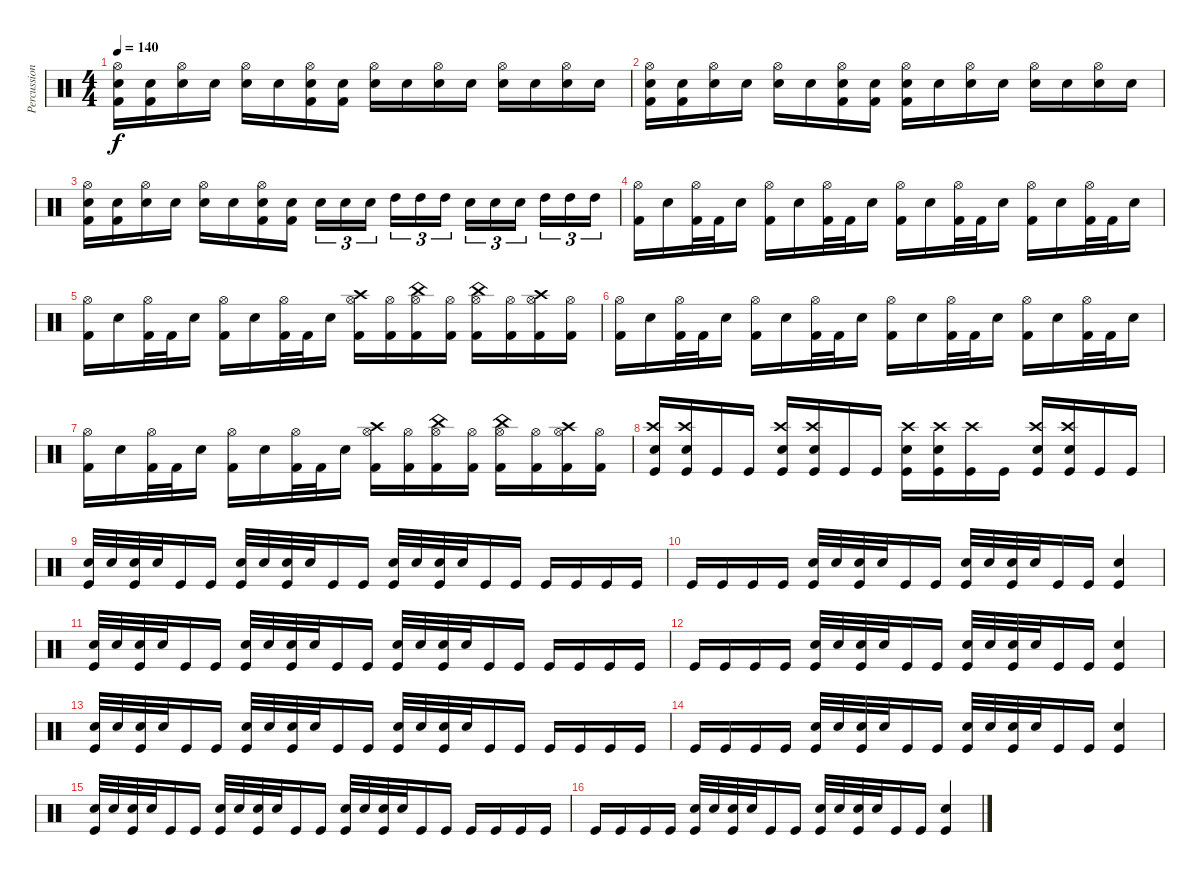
\track ("Percussion" "Percussion") {instrument percussion}
\staff {score}
\articulation defaults
\ts (4 4)
\tempo 140
\clef neutral
\ks c
("Hi-Hat (open)" "Snare (hit) 2" "Kick (hit) 2").16{dy f} ("Snare (hit) 2" "Kick (hit) 2").16 ("Hi-Hat (open)" "Snare (hit) 2").16 "Snare (hit) 2".16 ("Hi-Hat (open)" "Snare (hit) 2").16 "Snare (hit) 2".16 ("Hi-Hat (open)" "Snare (hit) 2" "Kick (hit) 2").16 ("Snare (hit) 2" "Kick (hit) 2").16 ("Hi-Hat (open)" "Snare (hit) 2").16 "Snare (hit) 2".16 ("Hi-Hat (open)" "Snare (hit) 2").16 "Snare (hit) 2".16 ("Hi-Hat (open)" "Snare (hit) 2").16 "Snare (hit) 2".16 ("Hi-Hat (open)" "Snare (hit) 2").16 "Snare (hit) 2".16 |
("Hi-Hat (open)" "Snare (hit) 2" "Kick (hit) 2").16 ("Snare (hit) 2" "Kick (hit) 2").16 ("Hi-Hat (open)" "Snare (hit) 2").16 "Snare (hit) 2".16 ("Hi-Hat (open)" "Snare (hit) 2").16 "Snare (hit) 2".16 ("Hi-Hat (open)" "Snare (hit) 2" "Kick (hit) 2").16 ("Snare (hit) 2" "Kick (hit) 2").16 ("Hi-Hat (open)" "Snare (hit) 2" "Kick (hit) 2").16 "Snare (hit) 2".16 ("Hi-Hat (open)" "Snare (hit) 2").16 "Snare (hit) 2".16 ("Hi-Hat (open)" "Snare (hit) 2").16 "Snare (hit) 2".16 ("Hi-Hat (open)" "Snare (hit) 2").16 "Snare (hit) 2".16 |
("Hi-Hat (open)" "Snare (hit) 2" "Kick (hit) 2").16 ("Snare (hit) 2" "Kick (hit) 2").16 ("Hi-Hat (open)" "Snare (hit) 2").16 "Snare (hit) 2".16 ("Hi-Hat (open)" "Snare (hit) 2").16 "Snare (hit) 2".16 ("Hi-Hat (open)" "Snare (hit) 2" "Kick (hit) 2").16 ("Snare (hit) 2" "Kick (hit) 2").16 "Snare (hit) 2".16{tu (3 2)} "Snare (hit) 2".16{tu (3 2)} "Snare (hit) 2".16{tu (3 2) beam splitsecondary} "High Tom (hit)".16{tu (3 2)} "High Tom (hit)".16{tu (3 2)} "High Tom (hit)".16{tu (3 2)} "Snare (hit) 2".16{tu (3 2)} "Snare (hit) 2".16{tu (3 2)} "Snare (hit) 2".16{tu (3 2) beam splitsecondary} "High Tom (hit)".16{tu (3 2)} "High Tom (hit)".16{tu (3 2)} "High Tom (hit)".16{tu (3 2)} |
("Kick (hit) 2" "Hi-Hat (open)").16 "Snare (hit) 2".16 ("Kick (hit) 2" "Hi-Hat (open)").32 "Kick (hit) 2".32 "Snare (hit) 2".16 ("Kick (hit) 2" "Hi-Hat (open)").16 "Snare (hit) 2".16 ("Kick (hit) 2" "Hi-Hat (open)").32 "Kick (hit) 2".32 "Snare (hit) 2".16 ("Kick (hit) 2" "Hi-Hat (open)").16 "Snare (hit) 2".16 ("Kick (hit) 2" "Hi-Hat (open)").32 "Kick (hit) 2".32 "Snare (hit) 2".16 ("Kick (hit) 2" "Hi-Hat (open)").16 "Snare (hit) 2".16 ("Kick (hit) 2" "Hi-Hat (open)").32 "Kick (hit) 2".32 "Snare (hit) 2".16 |
("Kick (hit) 2" "Hi-Hat (open)").16 "Snare (hit) 2".16 ("Kick (hit) 2" "Hi-Hat (open)").32 "Kick (hit) 2".32 "Snare (hit) 2".16 ("Kick (hit) 2" "Hi-Hat (open)").16 "Snare (hit) 2".16 ("Kick (hit) 2" "Hi-Hat (open)").32 "Kick (hit) 2".32 "Snare (hit) 2".16 ("Kick (hit) 2" "Hi-Hat (open)" "Crash high (hit)").16 ("Kick (hit) 2" "Hi-Hat (open)").16 ("Kick (hit) 2" "Hi-Hat (open)" "China (hit)").16 ("Kick (hit) 2" "Hi-Hat (open)").16 ("Kick (hit) 2" "Hi-Hat (open)" "China (hit)").16 ("Kick (hit) 2" "Hi-Hat (open)").16 ("Kick (hit) 2" "Hi-Hat (open)" "Crash high (hit)").16 ("Kick (hit) 2" "Hi-Hat (open)").16 |
("Kick (hit) 2" "Hi-Hat (open)").16 "Snare (hit) 2".16 ("Kick (hit) 2" "Hi-Hat (open)").32 "Kick (hit) 2".32 "Snare (hit) 2".16 ("Kick (hit) 2" "Hi-Hat (open)").16 "Snare (hit) 2".16 ("Kick (hit) 2" "Hi-Hat (open)").32 "Kick (hit) 2".32 "Snare (hit) 2".16 ("Kick (hit) 2" "Hi-Hat (open)").16 "Snare (hit) 2".16 ("Kick (hit) 2" "Hi-Hat (open)").32 "Kick (hit) 2".32 "Snare (hit) 2".16 ("Kick (hit) 2" "Hi-Hat (open)").16 "Snare (hit) 2".16 ("Kick (hit) 2" "Hi-Hat (open)").32 "Kick (hit) 2".32 "Snare (hit) 2".16 |
("Kick (hit) 2" "Hi-Hat (open)").16 "Snare (hit) 2".16 ("Kick (hit) 2" "Hi-Hat (open)").32 "Kick (hit) 2".32 "Snare (hit) 2".16 ("Kick (hit) 2" "Hi-Hat (open)").16 "Snare (hit) 2".16 ("Kick (hit) 2" "Hi-Hat (open)").32 "Kick (hit) 2".32 "Snare (hit) 2".16 ("Kick (hit) 2" "Hi-Hat (open)" "Crash high (hit)").16 ("Kick (hit) 2" "Hi-Hat (open)").16 ("Kick (hit) 2" "Hi-Hat (open)" "China (hit)").16 ("Kick (hit) 2" "Hi-Hat (open)").16 ("Kick (hit) 2" "Hi-Hat (open)" "China (hit)").16 ("Kick (hit) 2" "Hi-Hat (open)").16 ("Kick (hit) 2" "Hi-Hat (open)" "Crash high (hit)").16 ("Kick (hit) 2" "Hi-Hat (open)").16 |
("Snare (hit) 2" "Kick (hit)" "Crash high (hit)").16 ("Snare (hit) 2" "Kick (hit)" "Crash high (hit)").16 "Kick (hit)".16 "Kick (hit)".16 ("Snare (hit) 2" "Kick (hit)" "Crash high (hit)").16 ("Snare (hit) 2" "Kick (hit)" "Crash high (hit)").16 "Kick (hit)".16 "Kick (hit)".16 ("Snare (hit) 2" "Kick (hit)" "Crash high (hit)").16 ("Snare (hit) 2" "Kick (hit)" "Crash high (hit)").16 ("Kick (hit)" "Crash high (hit)").16 "Kick (hit)".16 ("Snare (hit) 2" "Kick (hit)" "Crash high (hit)").16 ("Snare (hit) 2" "Kick (hit)" "Crash high (hit)").16 "Kick (hit)".16 "Kick (hit)".16 |
("Snare (hit) 2" "Kick (hit)").32 "Snare (hit) 2".32 ("Snare (hit) 2" "Kick (hit)").32 "Snare (hit) 2".32 "Kick (hit)".16 "Kick (hit)".16 ("Snare (hit) 2" "Kick (hit)").32 "Snare (hit) 2".32 ("Snare (hit) 2" "Kick (hit)").32 "Snare (hit) 2".32 "Kick (hit)".16 "Kick (hit)".16 ("Snare (hit) 2" "Kick (hit)").32 "Snare (hit) 2".32 ("Snare (hit) 2" "Kick (hit)").32 "Snare (hit) 2".32 "Kick (hit)".16 "Kick (hit)".16 "Kick (hit)".16 "Kick (hit)".16 "Kick (hit)".16 "Kick (hit)".16 |
"Kick (hit)".16 "Kick (hit)".16 "Kick (hit)".16 "Kick (hit)".16 ("Snare (hit) 2" "Kick (hit)").32 "Snare (hit) 2".32 ("Snare (hit) 2" "Kick (hit)").32 "Snare (hit) 2".32 "Kick (hit)".16 "Kick (hit)".16 ("Snare (hit) 2" "Kick (hit)").32 "Snare (hit) 2".32 ("Snare (hit) 2" "Kick (hit)").32 "Snare (hit) 2".32 "Kick (hit)".16 "Kick (hit)".16 ("Snare (hit) 2" "Kick (hit)").4 |
("Snare (hit) 2" "Kick (hit)").32 "Snare (hit) 2".32 ("Snare (hit) 2" "Kick (hit)").32 "Snare (hit) 2".32 "Kick (hit)".16 "Kick (hit)".16 ("Snare (hit) 2" "Kick (hit)").32 "Snare (hit) 2".32 ("Snare (hit) 2" "Kick (hit)").32 "Snare (hit) 2".32 "Kick (hit)".16 "Kick (hit)".16 ("Snare (hit) 2" "Kick (hit)").32 "Snare (hit) 2".32 ("Snare (hit) 2" "Kick (hit)").32 "Snare (hit) 2".32 "Kick (hit)".16 "Kick (hit)".16 "Kick (hit)".16 "Kick (hit)".16 "Kick (hit)".16 "Kick (hit)".16 |
"Kick (hit)".16 "Kick (hit)".16 "Kick (hit)".16 "Kick (hit)".16 ("Snare (hit) 2" "Kick (hit)").32 "Snare (hit) 2".32 ("Snare (hit) 2" "Kick (hit)").32 "Snare (hit) 2".32 "Kick (hit)".16 "Kick (hit)".16 ("Snare (hit) 2" "Kick (hit)").32 "Snare (hit) 2".32 ("Snare (hit) 2" "Kick (hit)").32 "Snare (hit) 2".32 "Kick (hit)".16 "Kick (hit)".16 ("Snare (hit) 2" "Kick (hit)").4 |
("Snare (hit) 2" "Kick (hit)").32 "Snare (hit) 2".32 ("Snare (hit) 2" "Kick (hit)").32 "Snare (hit) 2".32 "Kick (hit)".16 "Kick (hit)".16 ("Snare (hit) 2" "Kick (hit)").32 "Snare (hit) 2".32 ("Snare (hit) 2" "Kick (hit)").32 "Snare (hit) 2".32 "Kick (hit)".16 "Kick (hit)".16 ("Snare (hit) 2" "Kick (hit)").32 "Snare (hit) 2".32 ("Snare (hit) 2" "Kick (hit)").32 "Snare (hit) 2".32 "Kick (hit)".16 "Kick (hit)".16 "Kick (hit)".16 "Kick (hit)".16 "Kick (hit)".16 "Kick (hit)".16 |
"Kick (hit)".16 "Kick (hit)".16 "Kick (hit)".16 "Kick (hit)".16 ("Snare (hit) 2" "Kick (hit)").32 "Snare (hit) 2".32 ("Snare (hit) 2" "Kick (hit)").32 "Snare (hit) 2".32 "Kick (hit)".16 "Kick (hit)".16 ("Snare (hit) 2" "Kick (hit)").32 "Snare (hit) 2".32 ("Snare (hit) 2" "Kick (hit)").32 "Snare (hit) 2".32 "Kick (hit)".16 "Kick (hit)".16 ("Snare (hit) 2" "Kick (hit)").4 |
("Snare (hit) 2" "Kick (hit)").32 "Snare (hit) 2".32 ("Snare (hit) 2" "Kick (hit)").32 "Snare (hit) 2".32 "Kick (hit)".16 "Kick (hit)".16 ("Snare (hit) 2" "Kick (hit)").32 "Snare (hit) 2".32 ("Snare (hit) 2" "Kick (hit)").32 "Snare (hit) 2".32 "Kick (hit)".16 "Kick (hit)".16 ("Snare (hit) 2" "Kick (hit)").32 "Snare (hit) 2".32 ("Snare (hit) 2" "Kick (hit)").32 "Snare (hit) 2".32 "Kick (hit)".16 "Kick (hit)".16 "Kick (hit)".16 "Kick (hit)".16 "Kick (hit)".16 "Kick (hit)".16 |
"Kick (hit)".16 "Kick (hit)".16 "Kick (hit)".16 "Kick (hit)".16 ("Snare (hit) 2" "Kick (hit)").32 "Snare (hit) 2".32 ("Snare (hit) 2" "Kick (hit)").32 "Snare (hit) 2".32 "Kick (hit)".16 "Kick (hit)".16 ("Snare (hit) 2" "Kick (hit)").32 "Snare (hit) 2".32 ("Snare (hit) 2" "Kick (hit)").32 "Snare (hit) 2".32 "Kick (hit)".16 "Kick (hit)".16 ("Snare (hit) 2" "Kick (hit)").4
